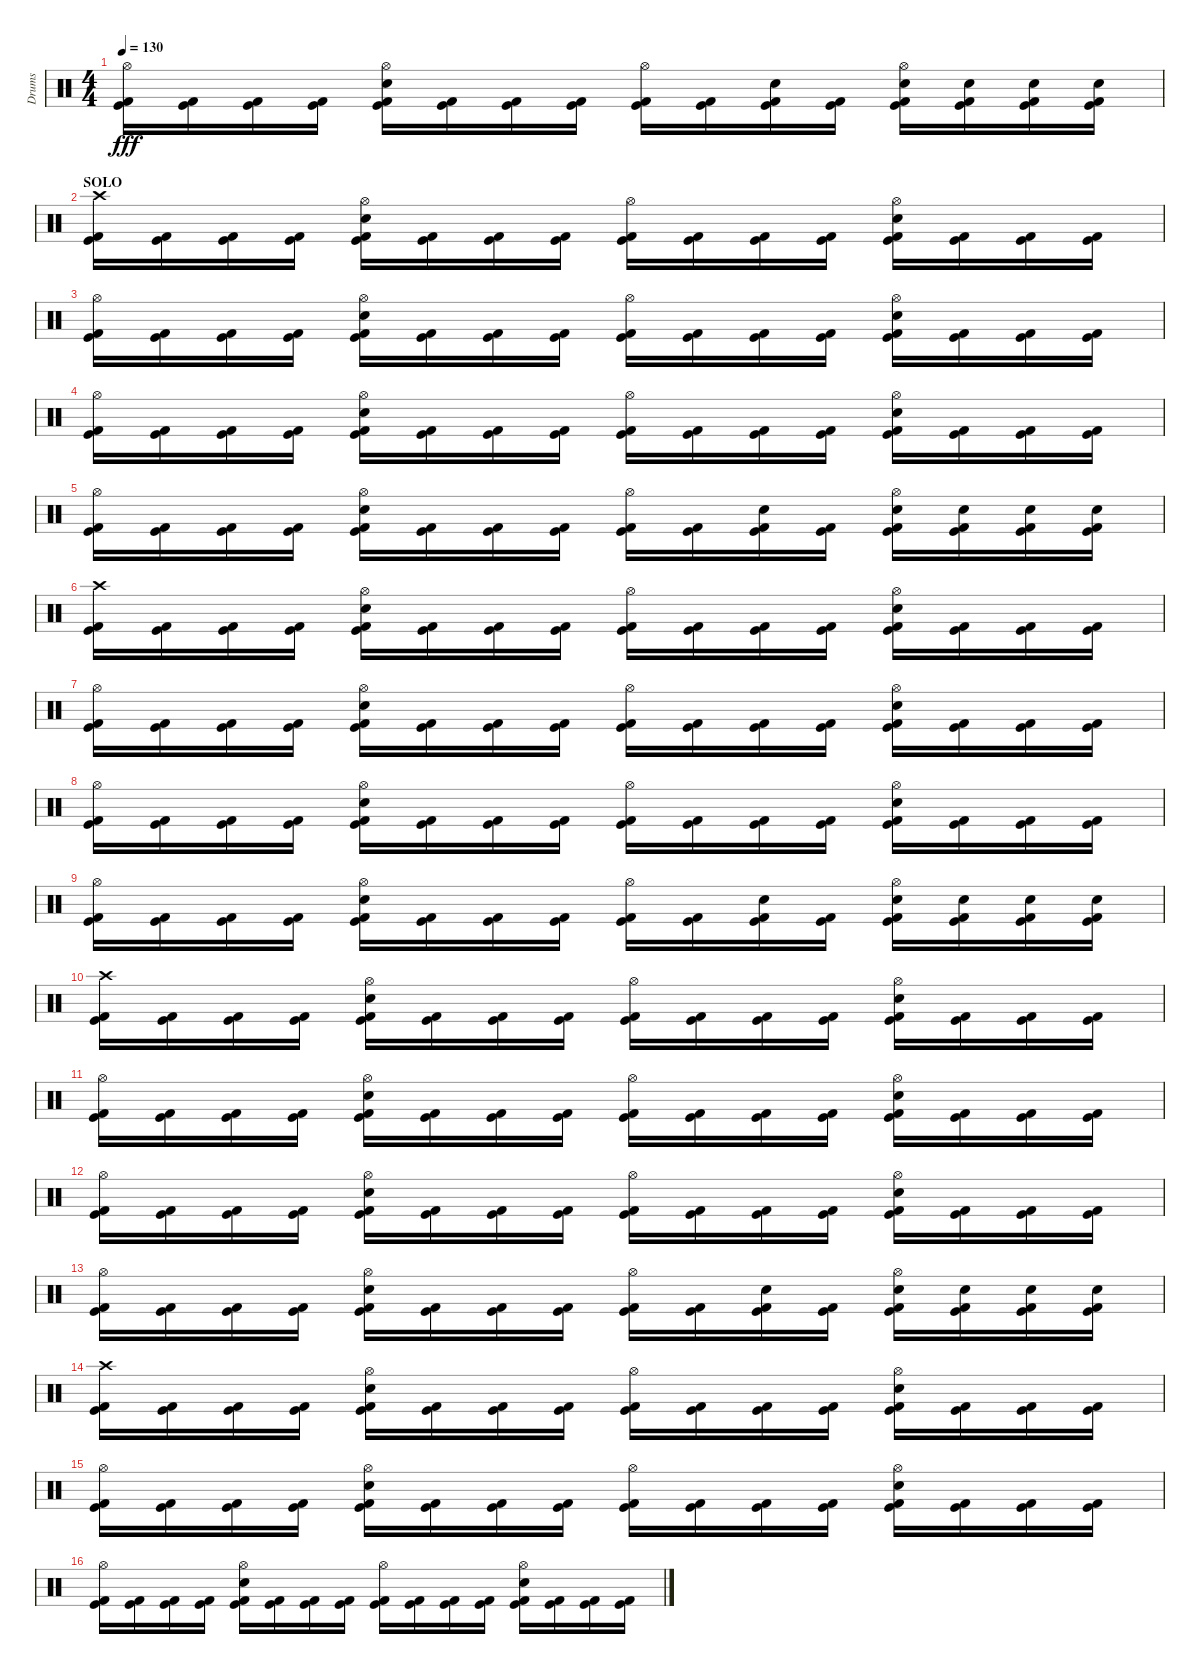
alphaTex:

\track ("Drums" "Drums") {instrument percussion}
\staff {score}
\articulation defaults
\ts (4 4)
\tempo 130
\clef neutral
\ks c
("Hi-Hat (open)" "Kick (hit)" "Kick (hit) 2").16{dy fff} ("Kick (hit)" "Kick (hit) 2").16 ("Kick (hit)" "Kick (hit) 2").16 ("Kick (hit)" "Kick (hit) 2").16 ("Hi-Hat (open)" "Electric Snare (hit)" "Kick (hit)" "Kick (hit) 2").16 ("Kick (hit)" "Kick (hit) 2").16 ("Kick (hit)" "Kick (hit) 2").16 ("Kick (hit)" "Kick (hit) 2").16 ("Hi-Hat (open)" "Kick (hit)" "Kick (hit) 2").16 ("Kick (hit)" "Kick (hit) 2").16 ("Electric Snare (hit)" "Kick (hit)" "Kick (hit) 2").16 ("Kick (hit)" "Kick (hit) 2").16 ("Hi-Hat (open)" "Electric Snare (hit)" "Kick (hit)" "Kick (hit) 2").16 ("Electric Snare (hit)" "Kick (hit)" "Kick (hit) 2").16 ("Electric Snare (hit)" "Kick (hit)" "Kick (hit) 2").16 ("Electric Snare (hit)" "Kick (hit)" "Kick (hit) 2").16 |
\section ("" "SOLO")
("Crash high (hit)" "Kick (hit)" "Kick (hit) 2").16 ("Kick (hit)" "Kick (hit) 2").16 ("Kick (hit)" "Kick (hit) 2").16 ("Kick (hit)" "Kick (hit) 2").16 ("Hi-Hat (open)" "Electric Snare (hit)" "Kick (hit)" "Kick (hit) 2").16 ("Kick (hit)" "Kick (hit) 2").16 ("Kick (hit)" "Kick (hit) 2").16 ("Kick (hit)" "Kick (hit) 2").16 ("Hi-Hat (open)" "Kick (hit)" "Kick (hit) 2").16 ("Kick (hit)" "Kick (hit) 2").16 ("Kick (hit)" "Kick (hit) 2").16 ("Kick (hit)" "Kick (hit) 2").16 ("Hi-Hat (open)" "Electric Snare (hit)" "Kick (hit)" "Kick (hit) 2").16 ("Kick (hit)" "Kick (hit) 2").16 ("Kick (hit)" "Kick (hit) 2").16 ("Kick (hit)" "Kick (hit) 2").16 |
("Hi-Hat (open)" "Kick (hit)" "Kick (hit) 2").16 ("Kick (hit)" "Kick (hit) 2").16 ("Kick (hit)" "Kick (hit) 2").16 ("Kick (hit)" "Kick (hit) 2").16 ("Hi-Hat (open)" "Electric Snare (hit)" "Kick (hit)" "Kick (hit) 2").16 ("Kick (hit)" "Kick (hit) 2").16 ("Kick (hit)" "Kick (hit) 2").16 ("Kick (hit)" "Kick (hit) 2").16 ("Hi-Hat (open)" "Kick (hit)" "Kick (hit) 2").16 ("Kick (hit)" "Kick (hit) 2").16 ("Kick (hit)" "Kick (hit) 2").16 ("Kick (hit)" "Kick (hit) 2").16 ("Hi-Hat (open)" "Electric Snare (hit)" "Kick (hit)" "Kick (hit) 2").16 ("Kick (hit)" "Kick (hit) 2").16 ("Kick (hit)" "Kick (hit) 2").16 ("Kick (hit)" "Kick (hit) 2").16 |
("Hi-Hat (open)" "Kick (hit)" "Kick (hit) 2").16 ("Kick (hit)" "Kick (hit) 2").16 ("Kick (hit)" "Kick (hit) 2").16 ("Kick (hit)" "Kick (hit) 2").16 ("Hi-Hat (open)" "Electric Snare (hit)" "Kick (hit)" "Kick (hit) 2").16 ("Kick (hit)" "Kick (hit) 2").16 ("Kick (hit)" "Kick (hit) 2").16 ("Kick (hit)" "Kick (hit) 2").16 ("Hi-Hat (open)" "Kick (hit)" "Kick (hit) 2").16 ("Kick (hit)" "Kick (hit) 2").16 ("Kick (hit)" "Kick (hit) 2").16 ("Kick (hit)" "Kick (hit) 2").16 ("Hi-Hat (open)" "Electric Snare (hit)" "Kick (hit)" "Kick (hit) 2").16 ("Kick (hit)" "Kick (hit) 2").16 ("Kick (hit)" "Kick (hit) 2").16 ("Kick (hit)" "Kick (hit) 2").16 |
("Hi-Hat (open)" "Kick (hit)" "Kick (hit) 2").16 ("Kick (hit)" "Kick (hit) 2").16 ("Kick (hit)" "Kick (hit) 2").16 ("Kick (hit)" "Kick (hit) 2").16 ("Hi-Hat (open)" "Electric Snare (hit)" "Kick (hit)" "Kick (hit) 2").16 ("Kick (hit)" "Kick (hit) 2").16 ("Kick (hit)" "Kick (hit) 2").16 ("Kick (hit)" "Kick (hit) 2").16 ("Hi-Hat (open)" "Kick (hit)" "Kick (hit) 2").16 ("Kick (hit)" "Kick (hit) 2").16 ("Electric Snare (hit)" "Kick (hit)" "Kick (hit) 2").16 ("Kick (hit)" "Kick (hit) 2").16 ("Hi-Hat (open)" "Electric Snare (hit)" "Kick (hit)" "Kick (hit) 2").16 ("Electric Snare (hit)" "Kick (hit)" "Kick (hit) 2").16 ("Electric Snare (hit)" "Kick (hit)" "Kick (hit) 2").16 ("Electric Snare (hit)" "Kick (hit)" "Kick (hit) 2").16 |
("Crash high (hit)" "Kick (hit)" "Kick (hit) 2").16 ("Kick (hit)" "Kick (hit) 2").16 ("Kick (hit)" "Kick (hit) 2").16 ("Kick (hit)" "Kick (hit) 2").16 ("Hi-Hat (open)" "Electric Snare (hit)" "Kick (hit)" "Kick (hit) 2").16 ("Kick (hit)" "Kick (hit) 2").16 ("Kick (hit)" "Kick (hit) 2").16 ("Kick (hit)" "Kick (hit) 2").16 ("Hi-Hat (open)" "Kick (hit)" "Kick (hit) 2").16 ("Kick (hit)" "Kick (hit) 2").16 ("Kick (hit)" "Kick (hit) 2").16 ("Kick (hit)" "Kick (hit) 2").16 ("Hi-Hat (open)" "Electric Snare (hit)" "Kick (hit)" "Kick (hit) 2").16 ("Kick (hit)" "Kick (hit) 2").16 ("Kick (hit)" "Kick (hit) 2").16 ("Kick (hit)" "Kick (hit) 2").16 |
("Hi-Hat (open)" "Kick (hit)" "Kick (hit) 2").16 ("Kick (hit)" "Kick (hit) 2").16 ("Kick (hit)" "Kick (hit) 2").16 ("Kick (hit)" "Kick (hit) 2").16 ("Hi-Hat (open)" "Electric Snare (hit)" "Kick (hit)" "Kick (hit) 2").16 ("Kick (hit)" "Kick (hit) 2").16 ("Kick (hit)" "Kick (hit) 2").16 ("Kick (hit)" "Kick (hit) 2").16 ("Hi-Hat (open)" "Kick (hit)" "Kick (hit) 2").16 ("Kick (hit)" "Kick (hit) 2").16 ("Kick (hit)" "Kick (hit) 2").16 ("Kick (hit)" "Kick (hit) 2").16 ("Hi-Hat (open)" "Electric Snare (hit)" "Kick (hit)" "Kick (hit) 2").16 ("Kick (hit)" "Kick (hit) 2").16 ("Kick (hit)" "Kick (hit) 2").16 ("Kick (hit)" "Kick (hit) 2").16 |
("Hi-Hat (open)" "Kick (hit)" "Kick (hit) 2").16 ("Kick (hit)" "Kick (hit) 2").16 ("Kick (hit)" "Kick (hit) 2").16 ("Kick (hit)" "Kick (hit) 2").16 ("Hi-Hat (open)" "Electric Snare (hit)" "Kick (hit)" "Kick (hit) 2").16 ("Kick (hit)" "Kick (hit) 2").16 ("Kick (hit)" "Kick (hit) 2").16 ("Kick (hit)" "Kick (hit) 2").16 ("Hi-Hat (open)" "Kick (hit)" "Kick (hit) 2").16 ("Kick (hit)" "Kick (hit) 2").16 ("Kick (hit)" "Kick (hit) 2").16 ("Kick (hit)" "Kick (hit) 2").16 ("Hi-Hat (open)" "Electric Snare (hit)" "Kick (hit)" "Kick (hit) 2").16 ("Kick (hit)" "Kick (hit) 2").16 ("Kick (hit)" "Kick (hit) 2").16 ("Kick (hit)" "Kick (hit) 2").16 |
("Hi-Hat (open)" "Kick (hit)" "Kick (hit) 2").16 ("Kick (hit)" "Kick (hit) 2").16 ("Kick (hit)" "Kick (hit) 2").16 ("Kick (hit)" "Kick (hit) 2").16 ("Hi-Hat (open)" "Electric Snare (hit)" "Kick (hit)" "Kick (hit) 2").16 ("Kick (hit)" "Kick (hit) 2").16 ("Kick (hit)" "Kick (hit) 2").16 ("Kick (hit)" "Kick (hit) 2").16 ("Hi-Hat (open)" "Kick (hit)" "Kick (hit) 2").16 ("Kick (hit)" "Kick (hit) 2").16 ("Electric Snare (hit)" "Kick (hit)" "Kick (hit) 2").16 ("Kick (hit)" "Kick (hit) 2").16 ("Hi-Hat (open)" "Electric Snare (hit)" "Kick (hit)" "Kick (hit) 2").16 ("Electric Snare (hit)" "Kick (hit)" "Kick (hit) 2").16 ("Electric Snare (hit)" "Kick (hit)" "Kick (hit) 2").16 ("Electric Snare (hit)" "Kick (hit)" "Kick (hit) 2").16 |
("Crash high (hit)" "Kick (hit)" "Kick (hit) 2").16 ("Kick (hit)" "Kick (hit) 2").16 ("Kick (hit)" "Kick (hit) 2").16 ("Kick (hit)" "Kick (hit) 2").16 ("Hi-Hat (open)" "Electric Snare (hit)" "Kick (hit)" "Kick (hit) 2").16 ("Kick (hit)" "Kick (hit) 2").16 ("Kick (hit)" "Kick (hit) 2").16 ("Kick (hit)" "Kick (hit) 2").16 ("Hi-Hat (open)" "Kick (hit)" "Kick (hit) 2").16 ("Kick (hit)" "Kick (hit) 2").16 ("Kick (hit)" "Kick (hit) 2").16 ("Kick (hit)" "Kick (hit) 2").16 ("Hi-Hat (open)" "Electric Snare (hit)" "Kick (hit)" "Kick (hit) 2").16 ("Kick (hit)" "Kick (hit) 2").16 ("Kick (hit)" "Kick (hit) 2").16 ("Kick (hit)" "Kick (hit) 2").16 |
("Hi-Hat (open)" "Kick (hit)" "Kick (hit) 2").16 ("Kick (hit)" "Kick (hit) 2").16 ("Kick (hit)" "Kick (hit) 2").16 ("Kick (hit)" "Kick (hit) 2").16 ("Hi-Hat (open)" "Electric Snare (hit)" "Kick (hit)" "Kick (hit) 2").16 ("Kick (hit)" "Kick (hit) 2").16 ("Kick (hit)" "Kick (hit) 2").16 ("Kick (hit)" "Kick (hit) 2").16 ("Hi-Hat (open)" "Kick (hit)" "Kick (hit) 2").16 ("Kick (hit)" "Kick (hit) 2").16 ("Kick (hit)" "Kick (hit) 2").16 ("Kick (hit)" "Kick (hit) 2").16 ("Hi-Hat (open)" "Electric Snare (hit)" "Kick (hit)" "Kick (hit) 2").16 ("Kick (hit)" "Kick (hit) 2").16 ("Kick (hit)" "Kick (hit) 2").16 ("Kick (hit)" "Kick (hit) 2").16 |
("Hi-Hat (open)" "Kick (hit)" "Kick (hit) 2").16 ("Kick (hit)" "Kick (hit) 2").16 ("Kick (hit)" "Kick (hit) 2").16 ("Kick (hit)" "Kick (hit) 2").16 ("Hi-Hat (open)" "Electric Snare (hit)" "Kick (hit)" "Kick (hit) 2").16 ("Kick (hit)" "Kick (hit) 2").16 ("Kick (hit)" "Kick (hit) 2").16 ("Kick (hit)" "Kick (hit) 2").16 ("Hi-Hat (open)" "Kick (hit)" "Kick (hit) 2").16 ("Kick (hit)" "Kick (hit) 2").16 ("Kick (hit)" "Kick (hit) 2").16 ("Kick (hit)" "Kick (hit) 2").16 ("Hi-Hat (open)" "Electric Snare (hit)" "Kick (hit)" "Kick (hit) 2").16 ("Kick (hit)" "Kick (hit) 2").16 ("Kick (hit)" "Kick (hit) 2").16 ("Kick (hit)" "Kick (hit) 2").16 |
("Hi-Hat (open)" "Kick (hit)" "Kick (hit) 2").16 ("Kick (hit)" "Kick (hit) 2").16 ("Kick (hit)" "Kick (hit) 2").16 ("Kick (hit)" "Kick (hit) 2").16 ("Hi-Hat (open)" "Electric Snare (hit)" "Kick (hit)" "Kick (hit) 2").16 ("Kick (hit)" "Kick (hit) 2").16 ("Kick (hit)" "Kick (hit) 2").16 ("Kick (hit)" "Kick (hit) 2").16 ("Hi-Hat (open)" "Kick (hit)" "Kick (hit) 2").16 ("Kick (hit)" "Kick (hit) 2").16 ("Electric Snare (hit)" "Kick (hit)" "Kick (hit) 2").16 ("Kick (hit)" "Kick (hit) 2").16 ("Hi-Hat (open)" "Electric Snare (hit)" "Kick (hit)" "Kick (hit) 2").16 ("Electric Snare (hit)" "Kick (hit)" "Kick (hit) 2").16 ("Electric Snare (hit)" "Kick (hit)" "Kick (hit) 2").16 ("Electric Snare (hit)" "Kick (hit)" "Kick (hit) 2").16 |
("Crash high (hit)" "Kick (hit)" "Kick (hit) 2").16 ("Kick (hit)" "Kick (hit) 2").16 ("Kick (hit)" "Kick (hit) 2").16 ("Kick (hit)" "Kick (hit) 2").16 ("Hi-Hat (open)" "Electric Snare (hit)" "Kick (hit)" "Kick (hit) 2").16 ("Kick (hit)" "Kick (hit) 2").16 ("Kick (hit)" "Kick (hit) 2").16 ("Kick (hit)" "Kick (hit) 2").16 ("Hi-Hat (open)" "Kick (hit)" "Kick (hit) 2").16 ("Kick (hit)" "Kick (hit) 2").16 ("Kick (hit)" "Kick (hit) 2").16 ("Kick (hit)" "Kick (hit) 2").16 ("Hi-Hat (open)" "Electric Snare (hit)" "Kick (hit)" "Kick (hit) 2").16 ("Kick (hit)" "Kick (hit) 2").16 ("Kick (hit)" "Kick (hit) 2").16 ("Kick (hit)" "Kick (hit) 2").16 |
("Hi-Hat (open)" "Kick (hit)" "Kick (hit) 2").16 ("Kick (hit)" "Kick (hit) 2").16 ("Kick (hit)" "Kick (hit) 2").16 ("Kick (hit)" "Kick (hit) 2").16 ("Hi-Hat (open)" "Electric Snare (hit)" "Kick (hit)" "Kick (hit) 2").16 ("Kick (hit)" "Kick (hit) 2").16 ("Kick (hit)" "Kick (hit) 2").16 ("Kick (hit)" "Kick (hit) 2").16 ("Hi-Hat (open)" "Kick (hit)" "Kick (hit) 2").16 ("Kick (hit)" "Kick (hit) 2").16 ("Kick (hit)" "Kick (hit) 2").16 ("Kick (hit)" "Kick (hit) 2").16 ("Hi-Hat (open)" "Electric Snare (hit)" "Kick (hit)" "Kick (hit) 2").16 ("Kick (hit)" "Kick (hit) 2").16 ("Kick (hit)" "Kick (hit) 2").16 ("Kick (hit)" "Kick (hit) 2").16 |
("Hi-Hat (open)" "Kick (hit)" "Kick (hit) 2").16 ("Kick (hit)" "Kick (hit) 2").16 ("Kick (hit)" "Kick (hit) 2").16 ("Kick (hit)" "Kick (hit) 2").16 ("Hi-Hat (open)" "Electric Snare (hit)" "Kick (hit)" "Kick (hit) 2").16 ("Kick (hit)" "Kick (hit) 2").16 ("Kick (hit)" "Kick (hit) 2").16 ("Kick (hit)" "Kick (hit) 2").16 ("Hi-Hat (open)" "Kick (hit)" "Kick (hit) 2").16 ("Kick (hit)" "Kick (hit) 2").16 ("Kick (hit)" "Kick (hit) 2").16 ("Kick (hit)" "Kick (hit) 2").16 ("Hi-Hat (open)" "Electric Snare (hit)" "Kick (hit)" "Kick (hit) 2").16 ("Kick (hit)" "Kick (hit) 2").16 ("Kick (hit)" "Kick (hit) 2").16 ("Kick (hit)" "Kick (hit) 2").16
